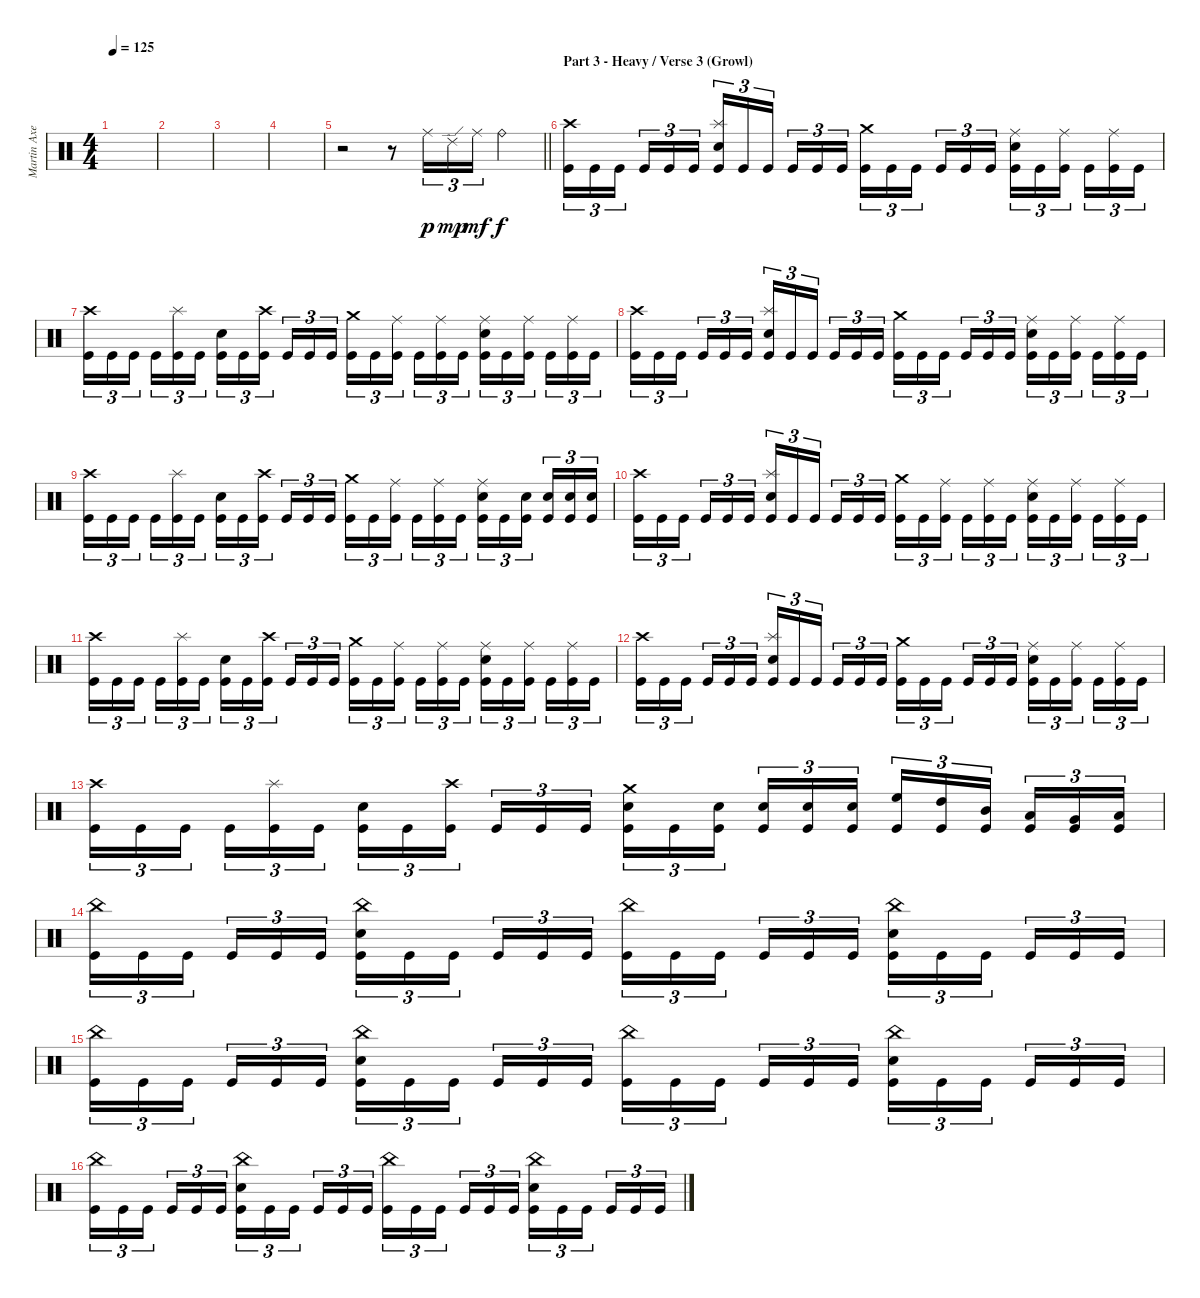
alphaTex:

\track ("Martin Axenrot" "Martin Axe") {instrument percussion}
\staff {score}
\articulation defaults
\ts (4 4)
\tempo 125
\clef neutral
\ks c
|
|
|
|
\barLineRight lightlight
r.2 r.8 "Ride (middle)".16{tu (3 2) dy p} "Ride (edge) 2".16{tu (3 2) dy mp} "Ride (middle)".16{tu (3 2) dy mf} "Ride (bell)".4{dy f} |
\section ("" "Part 3 - Heavy / Verse 3 (Growl)")
("Crash high (hit)" "Kick (hit)").16{tu (3 2)} "Kick (hit)".16{tu (3 2)} "Kick (hit)".16{tu (3 2) beam splitsecondary} "Kick (hit)".16{tu (3 2)} "Kick (hit)".16{tu (3 2)} "Kick (hit)".16{tu (3 2)} ("Splash (hit)" "Snare (hit) 2" "Kick (hit)").16{tu (3 2)} "Kick (hit)".16{tu (3 2)} "Kick (hit)".16{tu (3 2) beam splitsecondary} "Kick (hit)".16{tu (3 2)} "Kick (hit)".16{tu (3 2)} "Kick (hit)".16{tu (3 2)} ("Crash medium (hit)" "Kick (hit)").16{tu (3 2)} "Kick (hit)".16{tu (3 2)} "Kick (hit)".16{tu (3 2) beam splitsecondary} "Kick (hit)".16{tu (3 2)} "Kick (hit)".16{tu (3 2)} "Kick (hit)".16{tu (3 2)} ("Ride (middle)" "Snare (hit) 2" "Kick (hit)").16{tu (3 2)} "Kick (hit)".16{tu (3 2)} ("Ride (middle)" "Kick (hit)").16{tu (3 2) beam splitsecondary} "Kick (hit)".16{tu (3 2)} ("Ride (middle)" "Kick (hit)").16{tu (3 2)} "Kick (hit)".16{tu (3 2)} |
("Crash high (hit)" "Kick (hit)").16{tu (3 2)} "Kick (hit)".16{tu (3 2)} "Kick (hit)".16{tu (3 2) beam splitsecondary} "Kick (hit)".16{tu (3 2)} ("Splash (hit)" "Kick (hit)").16{tu (3 2)} "Kick (hit)".16{tu (3 2)} ("Snare (hit) 2" "Kick (hit)").16{tu (3 2)} "Kick (hit)".16{tu (3 2)} ("Crash high (hit)" "Kick (hit)").16{tu (3 2) beam splitsecondary} "Kick (hit)".16{tu (3 2)} "Kick (hit)".16{tu (3 2)} "Kick (hit)".16{tu (3 2)} ("Crash medium (hit)" "Kick (hit)").16{tu (3 2)} "Kick (hit)".16{tu (3 2)} ("Ride (middle)" "Kick (hit)").16{tu (3 2) beam splitsecondary} "Kick (hit)".16{tu (3 2)} ("Ride (middle)" "Kick (hit)").16{tu (3 2)} "Kick (hit)".16{tu (3 2)} ("Ride (middle)" "Snare (hit) 2" "Kick (hit)").16{tu (3 2)} "Kick (hit)".16{tu (3 2)} ("Ride (middle)" "Kick (hit)").16{tu (3 2) beam splitsecondary} "Kick (hit)".16{tu (3 2)} ("Ride (middle)" "Kick (hit)").16{tu (3 2)} "Kick (hit)".16{tu (3 2)} |
("Crash high (hit)" "Kick (hit)").16{tu (3 2)} "Kick (hit)".16{tu (3 2)} "Kick (hit)".16{tu (3 2) beam splitsecondary} "Kick (hit)".16{tu (3 2)} "Kick (hit)".16{tu (3 2)} "Kick (hit)".16{tu (3 2)} ("Splash (hit)" "Snare (hit) 2" "Kick (hit)").16{tu (3 2)} "Kick (hit)".16{tu (3 2)} "Kick (hit)".16{tu (3 2) beam splitsecondary} "Kick (hit)".16{tu (3 2)} "Kick (hit)".16{tu (3 2)} "Kick (hit)".16{tu (3 2)} ("Crash medium (hit)" "Kick (hit)").16{tu (3 2)} "Kick (hit)".16{tu (3 2)} "Kick (hit)".16{tu (3 2) beam splitsecondary} "Kick (hit)".16{tu (3 2)} "Kick (hit)".16{tu (3 2)} "Kick (hit)".16{tu (3 2)} ("Ride (middle)" "Snare (hit) 2" "Kick (hit)").16{tu (3 2)} "Kick (hit)".16{tu (3 2)} ("Ride (middle)" "Kick (hit)").16{tu (3 2) beam splitsecondary} "Kick (hit)".16{tu (3 2)} ("Ride (middle)" "Kick (hit)").16{tu (3 2)} "Kick (hit)".16{tu (3 2)} |
("Crash high (hit)" "Kick (hit)").16{tu (3 2)} "Kick (hit)".16{tu (3 2)} "Kick (hit)".16{tu (3 2) beam splitsecondary} "Kick (hit)".16{tu (3 2)} ("Splash (hit)" "Kick (hit)").16{tu (3 2)} "Kick (hit)".16{tu (3 2)} ("Snare (hit) 2" "Kick (hit)").16{tu (3 2)} "Kick (hit)".16{tu (3 2)} ("Crash high (hit)" "Kick (hit)").16{tu (3 2) beam splitsecondary} "Kick (hit)".16{tu (3 2)} "Kick (hit)".16{tu (3 2)} "Kick (hit)".16{tu (3 2)} ("Crash medium (hit)" "Kick (hit)").16{tu (3 2)} "Kick (hit)".16{tu (3 2)} ("Ride (middle)" "Kick (hit)").16{tu (3 2) beam splitsecondary} "Kick (hit)".16{tu (3 2)} ("Ride (middle)" "Kick (hit)").16{tu (3 2)} "Kick (hit)".16{tu (3 2)} ("Ride (middle)" "Snare (hit) 2" "Kick (hit)").16{tu (3 2)} "Kick (hit)".16{tu (3 2)} ("Snare (hit) 2" "Kick (hit)").16{tu (3 2) beam splitsecondary} ("Snare (hit) 2" "Kick (hit)").16{tu (3 2)} ("Snare (hit) 2" "Kick (hit)").16{tu (3 2)} ("Snare (hit) 2" "Kick (hit)").16{tu (3 2)} |
("Crash high (hit)" "Kick (hit)").16{tu (3 2)} "Kick (hit)".16{tu (3 2)} "Kick (hit)".16{tu (3 2) beam splitsecondary} "Kick (hit)".16{tu (3 2)} "Kick (hit)".16{tu (3 2)} "Kick (hit)".16{tu (3 2)} ("Splash (hit)" "Snare (hit) 2" "Kick (hit)").16{tu (3 2)} "Kick (hit)".16{tu (3 2)} "Kick (hit)".16{tu (3 2) beam splitsecondary} "Kick (hit)".16{tu (3 2)} "Kick (hit)".16{tu (3 2)} "Kick (hit)".16{tu (3 2)} ("Crash medium (hit)" "Kick (hit)").16{tu (3 2)} "Kick (hit)".16{tu (3 2)} ("Ride (middle)" "Kick (hit)").16{tu (3 2) beam splitsecondary} "Kick (hit)".16{tu (3 2)} ("Ride (middle)" "Kick (hit)").16{tu (3 2)} "Kick (hit)".16{tu (3 2)} ("Ride (middle)" "Snare (hit) 2" "Kick (hit)").16{tu (3 2)} "Kick (hit)".16{tu (3 2)} ("Ride (middle)" "Kick (hit)").16{tu (3 2) beam splitsecondary} "Kick (hit)".16{tu (3 2)} ("Ride (middle)" "Kick (hit)").16{tu (3 2)} "Kick (hit)".16{tu (3 2)} |
("Crash high (hit)" "Kick (hit)").16{tu (3 2)} "Kick (hit)".16{tu (3 2)} "Kick (hit)".16{tu (3 2) beam splitsecondary} "Kick (hit)".16{tu (3 2)} ("Splash (hit)" "Kick (hit)").16{tu (3 2)} "Kick (hit)".16{tu (3 2)} ("Snare (hit) 2" "Kick (hit)").16{tu (3 2)} "Kick (hit)".16{tu (3 2)} ("Crash high (hit)" "Kick (hit)").16{tu (3 2) beam splitsecondary} "Kick (hit)".16{tu (3 2)} "Kick (hit)".16{tu (3 2)} "Kick (hit)".16{tu (3 2)} ("Crash medium (hit)" "Kick (hit)").16{tu (3 2)} "Kick (hit)".16{tu (3 2)} ("Ride (middle)" "Kick (hit)").16{tu (3 2) beam splitsecondary} "Kick (hit)".16{tu (3 2)} ("Ride (middle)" "Kick (hit)").16{tu (3 2)} "Kick (hit)".16{tu (3 2)} ("Ride (middle)" "Snare (hit) 2" "Kick (hit)").16{tu (3 2)} "Kick (hit)".16{tu (3 2)} ("Ride (middle)" "Kick (hit)").16{tu (3 2) beam splitsecondary} "Kick (hit)".16{tu (3 2)} ("Ride (middle)" "Kick (hit)").16{tu (3 2)} "Kick (hit)".16{tu (3 2)} |
("Crash high (hit)" "Kick (hit)").16{tu (3 2)} "Kick (hit)".16{tu (3 2)} "Kick (hit)".16{tu (3 2) beam splitsecondary} "Kick (hit)".16{tu (3 2)} "Kick (hit)".16{tu (3 2)} "Kick (hit)".16{tu (3 2)} ("Splash (hit)" "Snare (hit) 2" "Kick (hit)").16{tu (3 2)} "Kick (hit)".16{tu (3 2)} "Kick (hit)".16{tu (3 2) beam splitsecondary} "Kick (hit)".16{tu (3 2)} "Kick (hit)".16{tu (3 2)} "Kick (hit)".16{tu (3 2)} ("Crash medium (hit)" "Kick (hit)").16{tu (3 2)} "Kick (hit)".16{tu (3 2)} "Kick (hit)".16{tu (3 2) beam splitsecondary} "Kick (hit)".16{tu (3 2)} "Kick (hit)".16{tu (3 2)} "Kick (hit)".16{tu (3 2)} ("Ride (middle)" "Snare (hit) 2" "Kick (hit)").16{tu (3 2)} "Kick (hit)".16{tu (3 2)} ("Ride (middle)" "Kick (hit)").16{tu (3 2) beam splitsecondary} "Kick (hit)".16{tu (3 2)} ("Ride (middle)" "Kick (hit)").16{tu (3 2)} "Kick (hit)".16{tu (3 2)} |
("Crash high (hit)" "Kick (hit)").16{tu (3 2)} "Kick (hit)".16{tu (3 2)} "Kick (hit)".16{tu (3 2) beam splitsecondary} "Kick (hit)".16{tu (3 2)} ("Splash (hit)" "Kick (hit)").16{tu (3 2)} "Kick (hit)".16{tu (3 2)} ("Snare (hit) 2" "Kick (hit)").16{tu (3 2)} "Kick (hit)".16{tu (3 2)} ("Crash high (hit)" "Kick (hit)").16{tu (3 2) beam splitsecondary} "Kick (hit)".16{tu (3 2)} "Kick (hit)".16{tu (3 2)} "Kick (hit)".16{tu (3 2)} ("Crash medium (hit)" "Snare (hit) 2" "Kick (hit)").16{tu (3 2)} "Kick (hit)".16{tu (3 2)} ("Snare (hit) 2" "Kick (hit)").16{tu (3 2) beam splitsecondary} ("Snare (hit) 2" "Kick (hit)").16{tu (3 2)} ("Snare (hit) 2" "Kick (hit)").16{tu (3 2)} ("Snare (hit) 2" "Kick (hit)").16{tu (3 2)} ("High Floor Tom (hit)" "Kick (hit)").16{tu (3 2)} ("High Tom (hit)" "Kick (hit)").16{tu (3 2)} ("Mid Tom (hit)" "Kick (hit)").16{tu (3 2) beam splitsecondary} ("Low Tom (hit)" "Kick (hit)").16{tu (3 2)} ("Very Low Tom (hit)" "Kick (hit)").16{tu (3 2)} ("Low Floor Tom (hit)" "Kick (hit)").16{tu (3 2)} |
("China (hit)" "Kick (hit)").16{tu (3 2)} "Kick (hit)".16{tu (3 2)} "Kick (hit)".16{tu (3 2) beam splitsecondary} "Kick (hit)".16{tu (3 2)} "Kick (hit)".16{tu (3 2)} "Kick (hit)".16{tu (3 2)} ("China (hit)" "Snare (hit) 2" "Kick (hit)").16{tu (3 2)} "Kick (hit)".16{tu (3 2)} "Kick (hit)".16{tu (3 2) beam splitsecondary} "Kick (hit)".16{tu (3 2)} "Kick (hit)".16{tu (3 2)} "Kick (hit)".16{tu (3 2)} ("China (hit)" "Kick (hit)").16{tu (3 2)} "Kick (hit)".16{tu (3 2)} "Kick (hit)".16{tu (3 2) beam splitsecondary} "Kick (hit)".16{tu (3 2)} "Kick (hit)".16{tu (3 2)} "Kick (hit)".16{tu (3 2)} ("China (hit)" "Snare (hit) 2" "Kick (hit)").16{tu (3 2)} "Kick (hit)".16{tu (3 2)} "Kick (hit)".16{tu (3 2) beam splitsecondary} "Kick (hit)".16{tu (3 2)} "Kick (hit)".16{tu (3 2)} "Kick (hit)".16{tu (3 2)} |
("China (hit)" "Kick (hit)").16{tu (3 2)} "Kick (hit)".16{tu (3 2)} "Kick (hit)".16{tu (3 2) beam splitsecondary} "Kick (hit)".16{tu (3 2)} "Kick (hit)".16{tu (3 2)} "Kick (hit)".16{tu (3 2)} ("China (hit)" "Snare (hit) 2" "Kick (hit)").16{tu (3 2)} "Kick (hit)".16{tu (3 2)} "Kick (hit)".16{tu (3 2) beam splitsecondary} "Kick (hit)".16{tu (3 2)} "Kick (hit)".16{tu (3 2)} "Kick (hit)".16{tu (3 2)} ("China (hit)" "Kick (hit)").16{tu (3 2)} "Kick (hit)".16{tu (3 2)} "Kick (hit)".16{tu (3 2) beam splitsecondary} "Kick (hit)".16{tu (3 2)} "Kick (hit)".16{tu (3 2)} "Kick (hit)".16{tu (3 2)} ("China (hit)" "Snare (hit) 2" "Kick (hit)").16{tu (3 2)} "Kick (hit)".16{tu (3 2)} "Kick (hit)".16{tu (3 2) beam splitsecondary} "Kick (hit)".16{tu (3 2)} "Kick (hit)".16{tu (3 2)} "Kick (hit)".16{tu (3 2)} |
("China (hit)" "Kick (hit)").16{tu (3 2)} "Kick (hit)".16{tu (3 2)} "Kick (hit)".16{tu (3 2) beam splitsecondary} "Kick (hit)".16{tu (3 2)} "Kick (hit)".16{tu (3 2)} "Kick (hit)".16{tu (3 2)} ("China (hit)" "Snare (hit) 2" "Kick (hit)").16{tu (3 2)} "Kick (hit)".16{tu (3 2)} "Kick (hit)".16{tu (3 2) beam splitsecondary} "Kick (hit)".16{tu (3 2)} "Kick (hit)".16{tu (3 2)} "Kick (hit)".16{tu (3 2)} ("China (hit)" "Kick (hit)").16{tu (3 2)} "Kick (hit)".16{tu (3 2)} "Kick (hit)".16{tu (3 2) beam splitsecondary} "Kick (hit)".16{tu (3 2)} "Kick (hit)".16{tu (3 2)} "Kick (hit)".16{tu (3 2)} ("China (hit)" "Snare (hit) 2" "Kick (hit)").16{tu (3 2)} "Kick (hit)".16{tu (3 2)} "Kick (hit)".16{tu (3 2) beam splitsecondary} "Kick (hit)".16{tu (3 2)} "Kick (hit)".16{tu (3 2)} "Kick (hit)".16{tu (3 2)}
